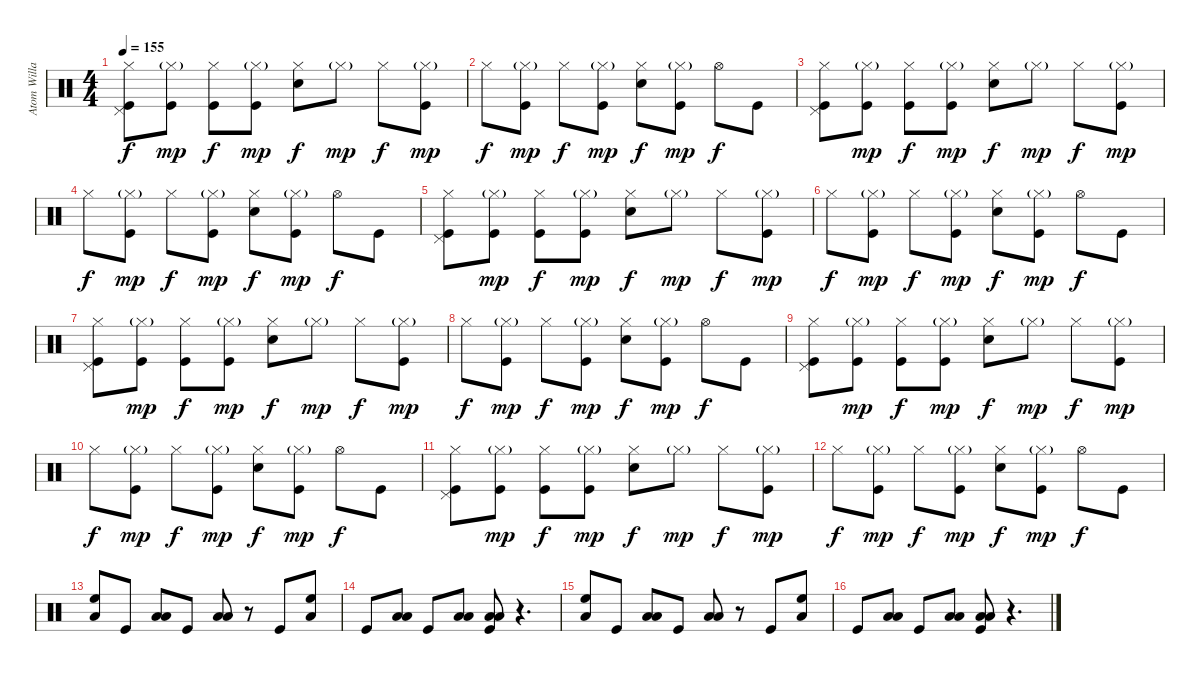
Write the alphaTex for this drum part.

\track ("Atom Willard Drums" "Atom Willa") {instrument percussion}
\staff {score}
\articulation defaults
\ts (4 4)
\tempo 155
\clef neutral
\ks c
("Hi-Hat (closed)" "Kick (hit)" "Pedal Hi-Hat (hit)").8{dy f} ("Hi-Hat (closed)"{g} "Kick (hit)").8{dy mp} ("Hi-Hat (closed)" "Kick (hit)").8{dy f} ("Hi-Hat (closed)"{g} "Kick (hit)").8{dy mp} ("Hi-Hat (closed)" "Electric Snare (hit)").8{dy f} "Hi-Hat (closed)"{g}.8{dy mp} "Hi-Hat (closed)".8{dy f} ("Hi-Hat (closed)"{g} "Kick (hit)").8{dy mp} |
"Hi-Hat (closed)".8{dy f} ("Hi-Hat (closed)"{g} "Kick (hit)").8{dy mp} "Hi-Hat (closed)".8{dy f} ("Hi-Hat (closed)"{g} "Kick (hit)").8{dy mp} ("Electric Snare (hit)" "Hi-Hat (closed)").8{dy f} ("Hi-Hat (closed)"{g} "Kick (hit)").8{dy mp} "Hi-Hat (open)".8{dy f} "Kick (hit)".8 |
("Hi-Hat (closed)" "Kick (hit)" "Pedal Hi-Hat (hit)").8 ("Hi-Hat (closed)"{g} "Kick (hit)").8{dy mp} ("Hi-Hat (closed)" "Kick (hit)").8{dy f} ("Hi-Hat (closed)"{g} "Kick (hit)").8{dy mp} ("Hi-Hat (closed)" "Electric Snare (hit)").8{dy f} "Hi-Hat (closed)"{g}.8{dy mp} "Hi-Hat (closed)".8{dy f} ("Hi-Hat (closed)"{g} "Kick (hit)").8{dy mp} |
"Hi-Hat (closed)".8{dy f} ("Hi-Hat (closed)"{g} "Kick (hit)").8{dy mp} "Hi-Hat (closed)".8{dy f} ("Hi-Hat (closed)"{g} "Kick (hit)").8{dy mp} ("Electric Snare (hit)" "Hi-Hat (closed)").8{dy f} ("Hi-Hat (closed)"{g} "Kick (hit)").8{dy mp} "Hi-Hat (open)".8{dy f} "Kick (hit)".8 |
("Hi-Hat (closed)" "Kick (hit)" "Pedal Hi-Hat (hit)").8 ("Hi-Hat (closed)"{g} "Kick (hit)").8{dy mp} ("Hi-Hat (closed)" "Kick (hit)").8{dy f} ("Hi-Hat (closed)"{g} "Kick (hit)").8{dy mp} ("Hi-Hat (closed)" "Electric Snare (hit)").8{dy f} "Hi-Hat (closed)"{g}.8{dy mp} "Hi-Hat (closed)".8{dy f} ("Hi-Hat (closed)"{g} "Kick (hit)").8{dy mp} |
"Hi-Hat (closed)".8{dy f} ("Hi-Hat (closed)"{g} "Kick (hit)").8{dy mp} "Hi-Hat (closed)".8{dy f} ("Hi-Hat (closed)"{g} "Kick (hit)").8{dy mp} ("Electric Snare (hit)" "Hi-Hat (closed)").8{dy f} ("Hi-Hat (closed)"{g} "Kick (hit)").8{dy mp} "Hi-Hat (open)".8{dy f} "Kick (hit)".8 |
("Hi-Hat (closed)" "Kick (hit)" "Pedal Hi-Hat (hit)").8 ("Hi-Hat (closed)"{g} "Kick (hit)").8{dy mp} ("Hi-Hat (closed)" "Kick (hit)").8{dy f} ("Hi-Hat (closed)"{g} "Kick (hit)").8{dy mp} ("Hi-Hat (closed)" "Electric Snare (hit)").8{dy f} "Hi-Hat (closed)"{g}.8{dy mp} "Hi-Hat (closed)".8{dy f} ("Hi-Hat (closed)"{g} "Kick (hit)").8{dy mp} |
"Hi-Hat (closed)".8{dy f} ("Hi-Hat (closed)"{g} "Kick (hit)").8{dy mp} "Hi-Hat (closed)".8{dy f} ("Hi-Hat (closed)"{g} "Kick (hit)").8{dy mp} ("Electric Snare (hit)" "Hi-Hat (closed)").8{dy f} ("Hi-Hat (closed)"{g} "Kick (hit)").8{dy mp} "Hi-Hat (open)".8{dy f} "Kick (hit)".8 |
("Hi-Hat (closed)" "Kick (hit)" "Pedal Hi-Hat (hit)").8 ("Hi-Hat (closed)"{g} "Kick (hit)").8{dy mp} ("Hi-Hat (closed)" "Kick (hit)").8{dy f} ("Hi-Hat (closed)"{g} "Kick (hit)").8{dy mp} ("Hi-Hat (closed)" "Electric Snare (hit)").8{dy f} "Hi-Hat (closed)"{g}.8{dy mp} "Hi-Hat (closed)".8{dy f} ("Hi-Hat (closed)"{g} "Kick (hit)").8{dy mp} |
"Hi-Hat (closed)".8{dy f} ("Hi-Hat (closed)"{g} "Kick (hit)").8{dy mp} "Hi-Hat (closed)".8{dy f} ("Hi-Hat (closed)"{g} "Kick (hit)").8{dy mp} ("Electric Snare (hit)" "Hi-Hat (closed)").8{dy f} ("Hi-Hat (closed)"{g} "Kick (hit)").8{dy mp} "Hi-Hat (open)".8{dy f} "Kick (hit)".8 |
("Hi-Hat (closed)" "Kick (hit)" "Pedal Hi-Hat (hit)").8 ("Hi-Hat (closed)"{g} "Kick (hit)").8{dy mp} ("Hi-Hat (closed)" "Kick (hit)").8{dy f} ("Hi-Hat (closed)"{g} "Kick (hit)").8{dy mp} ("Hi-Hat (closed)" "Electric Snare (hit)").8{dy f} "Hi-Hat (closed)"{g}.8{dy mp} "Hi-Hat (closed)".8{dy f} ("Hi-Hat (closed)"{g} "Kick (hit)").8{dy mp} |
"Hi-Hat (closed)".8{dy f} ("Hi-Hat (closed)"{g} "Kick (hit)").8{dy mp} "Hi-Hat (closed)".8{dy f} ("Hi-Hat (closed)"{g} "Kick (hit)").8{dy mp} ("Electric Snare (hit)" "Hi-Hat (closed)").8{dy f} ("Hi-Hat (closed)"{g} "Kick (hit)").8{dy mp} "Hi-Hat (open)".8{dy f} "Kick (hit)".8 |
("High Floor Tom (hit)" "Low Tom (hit)").8 "Kick (hit)".8 ("Low Tom (hit)" "Low Tom (hit)").8 "Kick (hit)".8 ("Low Tom (hit)" "Low Tom (hit)").8 r.8 "Kick (hit)".8 ("High Floor Tom (hit)" "Low Tom (hit)").8 |
"Kick (hit)".8 ("Low Tom (hit)" "Low Tom (hit)").8 "Kick (hit)".8 ("Low Tom (hit)" "Low Tom (hit)").8 ("Low Tom (hit)" "Low Tom (hit)" "Kick (hit)").8 r.4{d} |
("High Floor Tom (hit)" "Low Tom (hit)").8 "Kick (hit)".8 ("Low Tom (hit)" "Low Tom (hit)").8 "Kick (hit)".8 ("Low Tom (hit)" "Low Tom (hit)").8 r.8 "Kick (hit)".8 ("High Floor Tom (hit)" "Low Tom (hit)").8 |
"Kick (hit)".8 ("Low Tom (hit)" "Low Tom (hit)").8 "Kick (hit)".8 ("Low Tom (hit)" "Low Tom (hit)").8 ("Low Tom (hit)" "Low Tom (hit)" "Kick (hit)").8 r.4{d}
